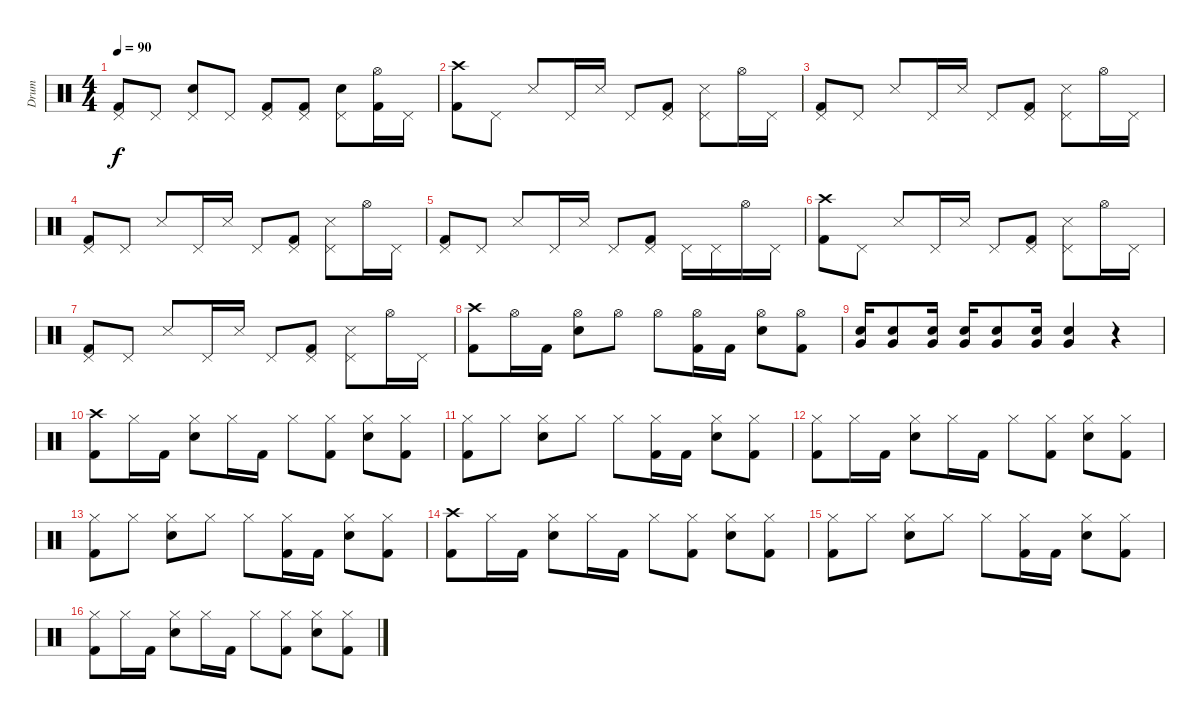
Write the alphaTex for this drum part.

\track ("Drum" "Drum") {instrument percussion}
\staff {score}
\articulation defaults
\ts (4 4)
\tempo 90
\clef neutral
\ks aminor
("Pedal Hi-Hat (hit)" "Kick (hit) 2").8{dy f} "Pedal Hi-Hat (hit)".8 ("Pedal Hi-Hat (hit)" "Electric Snare (hit)").8 "Pedal Hi-Hat (hit)".8 ("Pedal Hi-Hat (hit)" "Kick (hit) 2").8 ("Pedal Hi-Hat (hit)" "Kick (hit) 2").8 ("Pedal Hi-Hat (hit)" "Electric Snare (hit)").8 ("Hi-Hat (open)" "Kick (hit) 2").16 "Pedal Hi-Hat (hit)".16 |
("Crash high (hit)" "Kick (hit) 2").8 "Pedal Hi-Hat (hit)".8 "Metronome (hit)".8 "Pedal Hi-Hat (hit)".16 "Metronome (hit)".16 "Pedal Hi-Hat (hit)".8 ("Pedal Hi-Hat (hit)" "Kick (hit) 2").8 ("Pedal Hi-Hat (hit)" "Metronome (hit)").8 "Hi-Hat (open)".16 "Pedal Hi-Hat (hit)".16 |
("Pedal Hi-Hat (hit)" "Kick (hit) 2").8 "Pedal Hi-Hat (hit)".8 "Metronome (hit)".8 "Pedal Hi-Hat (hit)".16 "Metronome (hit)".16 "Pedal Hi-Hat (hit)".8 ("Pedal Hi-Hat (hit)" "Kick (hit) 2").8 ("Pedal Hi-Hat (hit)" "Metronome (hit)").8 "Hi-Hat (open)".16 "Pedal Hi-Hat (hit)".16 |
("Pedal Hi-Hat (hit)" "Kick (hit) 2").8 "Pedal Hi-Hat (hit)".8 "Metronome (hit)".8 "Pedal Hi-Hat (hit)".16 "Metronome (hit)".16 "Pedal Hi-Hat (hit)".8 ("Pedal Hi-Hat (hit)" "Kick (hit) 2").8 ("Pedal Hi-Hat (hit)" "Metronome (hit)").8 "Hi-Hat (open)".16 "Pedal Hi-Hat (hit)".16 |
("Pedal Hi-Hat (hit)" "Kick (hit) 2").8 "Pedal Hi-Hat (hit)".8 "Metronome (hit)".8 "Pedal Hi-Hat (hit)".16 "Metronome (hit)".16 "Pedal Hi-Hat (hit)".8 ("Pedal Hi-Hat (hit)" "Kick (hit) 2").8 "Pedal Hi-Hat (hit)".16 "Pedal Hi-Hat (hit)".16 "Hi-Hat (open)".16 "Pedal Hi-Hat (hit)".16 |
("Crash high (hit)" "Kick (hit) 2").8 "Pedal Hi-Hat (hit)".8 "Metronome (hit)".8 "Pedal Hi-Hat (hit)".16 "Metronome (hit)".16 "Pedal Hi-Hat (hit)".8 ("Pedal Hi-Hat (hit)" "Kick (hit) 2").8 ("Pedal Hi-Hat (hit)" "Metronome (hit)").8 "Hi-Hat (open)".16 "Pedal Hi-Hat (hit)".16 |
("Pedal Hi-Hat (hit)" "Kick (hit) 2").8 "Pedal Hi-Hat (hit)".8 "Metronome (hit)".8 "Pedal Hi-Hat (hit)".16 "Metronome (hit)".16 "Pedal Hi-Hat (hit)".8 ("Pedal Hi-Hat (hit)" "Kick (hit) 2").8 ("Pedal Hi-Hat (hit)" "Metronome (hit)").8 "Hi-Hat (open)".16 "Pedal Hi-Hat (hit)".16 |
\ks c
("Crash high (hit)" "Kick (hit) 2").8 "Hi-Hat (open)".16 "Kick (hit) 2".16 ("Hi-Hat (open)" "Electric Snare (hit)").8 "Hi-Hat (open)".8 "Hi-Hat (open)".8 ("Hi-Hat (open)" "Kick (hit) 2").16 "Kick (hit) 2".16 ("Hi-Hat (open)" "Electric Snare (hit)").8 ("Hi-Hat (open)" "Kick (hit) 2").8 |
("Electric Snare (hit)" "Very Low Tom (hit)").16 ("Electric Snare (hit)" "Very Low Tom (hit)").8 ("Electric Snare (hit)" "Very Low Tom (hit)").16 ("Electric Snare (hit)" "Very Low Tom (hit)").16 ("Electric Snare (hit)" "Very Low Tom (hit)").8 ("Electric Snare (hit)" "Very Low Tom (hit)").16 ("Electric Snare (hit)" "Very Low Tom (hit)").4 r.4 |
\ks aminor
("Crash high (hit)" "Kick (hit) 2").8 "Hi-Hat (closed)".16 "Kick (hit) 2".16 ("Hi-Hat (closed)" "Electric Snare (hit)").8 "Hi-Hat (closed)".16 "Kick (hit) 2".16 "Hi-Hat (closed)".8 ("Hi-Hat (closed)" "Kick (hit) 2").8 ("Hi-Hat (closed)" "Electric Snare (hit)").8 ("Hi-Hat (closed)" "Kick (hit) 2").8 |
("Hi-Hat (closed)" "Kick (hit) 2").8 "Hi-Hat (closed)".8 ("Hi-Hat (closed)" "Electric Snare (hit)").8 "Hi-Hat (closed)".8 "Hi-Hat (closed)".8 ("Hi-Hat (closed)" "Kick (hit) 2").16 "Kick (hit) 2".16 ("Hi-Hat (closed)" "Electric Snare (hit)").8 ("Hi-Hat (closed)" "Kick (hit) 2").8 |
("Hi-Hat (closed)" "Kick (hit) 2").8 "Hi-Hat (closed)".16 "Kick (hit) 2".16 ("Hi-Hat (closed)" "Electric Snare (hit)").8 "Hi-Hat (closed)".16 "Kick (hit) 2".16 "Hi-Hat (closed)".8 ("Hi-Hat (closed)" "Kick (hit) 2").8 ("Hi-Hat (closed)" "Electric Snare (hit)").8 ("Hi-Hat (closed)" "Kick (hit) 2").8 |
\ks c
("Hi-Hat (closed)" "Kick (hit) 2").8 "Hi-Hat (closed)".8 ("Hi-Hat (closed)" "Electric Snare (hit)").8 "Hi-Hat (closed)".8 "Hi-Hat (closed)".8 ("Hi-Hat (closed)" "Kick (hit) 2").16 "Kick (hit) 2".16 ("Hi-Hat (closed)" "Electric Snare (hit)").8 ("Hi-Hat (closed)" "Kick (hit) 2").8 |
\ks aminor
("Crash high (hit)" "Kick (hit) 2").8 "Hi-Hat (closed)".16 "Kick (hit) 2".16 ("Hi-Hat (closed)" "Electric Snare (hit)").8 "Hi-Hat (closed)".16 "Kick (hit) 2".16 "Hi-Hat (closed)".8 ("Hi-Hat (closed)" "Kick (hit) 2").8 ("Hi-Hat (closed)" "Electric Snare (hit)").8 ("Hi-Hat (closed)" "Kick (hit) 2").8 |
("Hi-Hat (closed)" "Kick (hit) 2").8 "Hi-Hat (closed)".8 ("Hi-Hat (closed)" "Electric Snare (hit)").8 "Hi-Hat (closed)".8 "Hi-Hat (closed)".8 ("Hi-Hat (closed)" "Kick (hit) 2").16 "Kick (hit) 2".16 ("Hi-Hat (closed)" "Electric Snare (hit)").8 ("Hi-Hat (closed)" "Kick (hit) 2").8 |
("Hi-Hat (closed)" "Kick (hit) 2").8 "Hi-Hat (closed)".16 "Kick (hit) 2".16 ("Hi-Hat (closed)" "Electric Snare (hit)").8 "Hi-Hat (closed)".16 "Kick (hit) 2".16 "Hi-Hat (closed)".8 ("Hi-Hat (closed)" "Kick (hit) 2").8 ("Hi-Hat (closed)" "Electric Snare (hit)").8 ("Hi-Hat (closed)" "Kick (hit) 2").8
